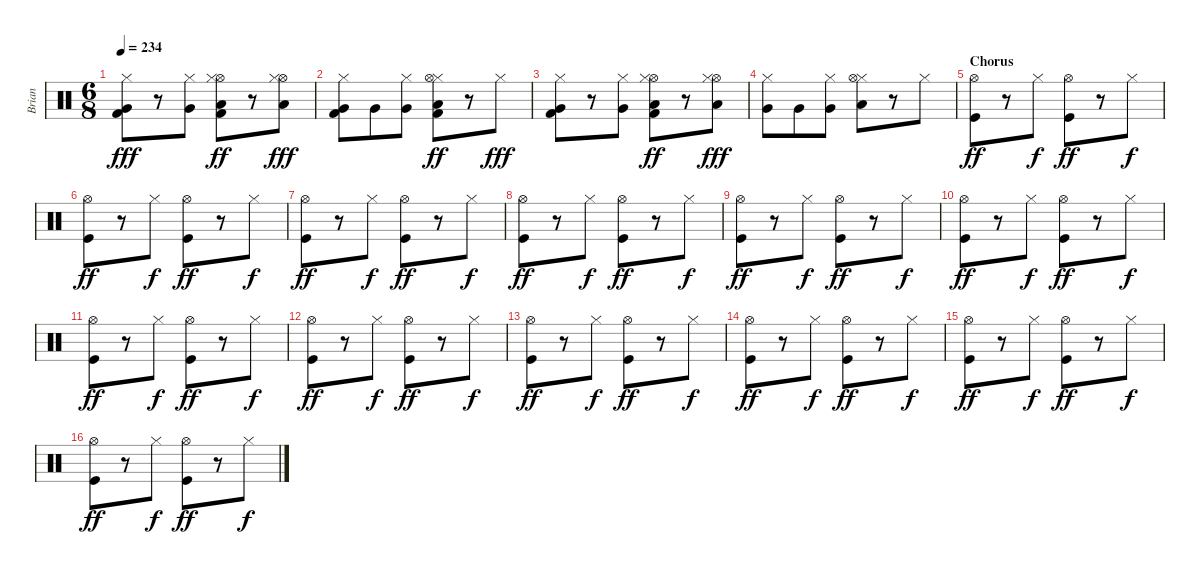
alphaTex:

\track ("Brian" "Brian") {instrument percussion}
\staff {score}
\articulation defaults
\ts (6 8)
\tempo 234
\clef neutral
\ks c
("Kick (hit) 2" "Hi-Hat (closed)" "Very Low Tom (hit)").8{dy fff} r.8 ("Hi-Hat (closed)" "Very Low Tom (hit)").8 ("Low Floor Tom (hit)" "Hi-Hat (open)" "Hi-Hat (closed)" "Kick (hit) 2").8{dy ff} r.8 ("Low Floor Tom (hit)" "Hi-Hat (open)" "Hi-Hat (closed)").8{dy fff} |
("Kick (hit) 2" "Hi-Hat (closed)" "Very Low Tom (hit)").8 "Very Low Tom (hit)".8 ("Hi-Hat (closed)" "Very Low Tom (hit)").8 ("Low Floor Tom (hit)" "Kick (hit) 2" "Hi-Hat (closed)" "Hi-Hat (open)").8{dy ff} r.8 "Hi-Hat (closed)".8{dy fff} |
("Hi-Hat (closed)" "Very Low Tom (hit)" "Kick (hit) 2").8 r.8 ("Hi-Hat (closed)" "Very Low Tom (hit)").8 ("Low Floor Tom (hit)" "Hi-Hat (open)" "Hi-Hat (closed)" "Kick (hit) 2").8{dy ff} r.8 ("Low Floor Tom (hit)" "Hi-Hat (open)" "Hi-Hat (closed)").8{dy fff} |
("Hi-Hat (closed)" "Very Low Tom (hit)").8 "Very Low Tom (hit)".8 ("Hi-Hat (closed)" "Very Low Tom (hit)").8 ("Low Floor Tom (hit)" "Hi-Hat (closed)" "Hi-Hat (open)").8 r.8 "Hi-Hat (closed)".8 |
\section ("" "Chorus")
("Hi-Hat (open)" "Kick (hit)").8{dy ff} r.8 "Hi-Hat (closed)".8{dy f} ("Hi-Hat (open)" "Kick (hit)").8{dy ff} r.8 "Hi-Hat (closed)".8{dy f} |
("Hi-Hat (open)" "Kick (hit)").8{dy ff} r.8 "Hi-Hat (closed)".8{dy f} ("Hi-Hat (open)" "Kick (hit)").8{dy ff} r.8 "Hi-Hat (closed)".8{dy f} |
("Hi-Hat (open)" "Kick (hit)").8{dy ff} r.8 "Hi-Hat (closed)".8{dy f} ("Hi-Hat (open)" "Kick (hit)").8{dy ff} r.8 "Hi-Hat (closed)".8{dy f} |
("Hi-Hat (open)" "Kick (hit)").8{dy ff} r.8 "Hi-Hat (closed)".8{dy f} ("Hi-Hat (open)" "Kick (hit)").8{dy ff} r.8 "Hi-Hat (closed)".8{dy f} |
("Hi-Hat (open)" "Kick (hit)").8{dy ff} r.8 "Hi-Hat (closed)".8{dy f} ("Hi-Hat (open)" "Kick (hit)").8{dy ff} r.8 "Hi-Hat (closed)".8{dy f} |
("Hi-Hat (open)" "Kick (hit)").8{dy ff} r.8 "Hi-Hat (closed)".8{dy f} ("Hi-Hat (open)" "Kick (hit)").8{dy ff} r.8 "Hi-Hat (closed)".8{dy f} |
("Hi-Hat (open)" "Kick (hit)").8{dy ff} r.8 "Hi-Hat (closed)".8{dy f} ("Hi-Hat (open)" "Kick (hit)").8{dy ff} r.8 "Hi-Hat (closed)".8{dy f} |
("Hi-Hat (open)" "Kick (hit)").8{dy ff} r.8 "Hi-Hat (closed)".8{dy f} ("Hi-Hat (open)" "Kick (hit)").8{dy ff} r.8 "Hi-Hat (closed)".8{dy f} |
("Hi-Hat (open)" "Kick (hit)").8{dy ff} r.8 "Hi-Hat (closed)".8{dy f} ("Hi-Hat (open)" "Kick (hit)").8{dy ff} r.8 "Hi-Hat (closed)".8{dy f} |
("Hi-Hat (open)" "Kick (hit)").8{dy ff} r.8 "Hi-Hat (closed)".8{dy f} ("Hi-Hat (open)" "Kick (hit)").8{dy ff} r.8 "Hi-Hat (closed)".8{dy f} |
("Hi-Hat (open)" "Kick (hit)").8{dy ff} r.8 "Hi-Hat (closed)".8{dy f} ("Hi-Hat (open)" "Kick (hit)").8{dy ff} r.8 "Hi-Hat (closed)".8{dy f} |
("Hi-Hat (open)" "Kick (hit)").8{dy ff} r.8 "Hi-Hat (closed)".8{dy f} ("Hi-Hat (open)" "Kick (hit)").8{dy ff} r.8 "Hi-Hat (closed)".8{dy f}
